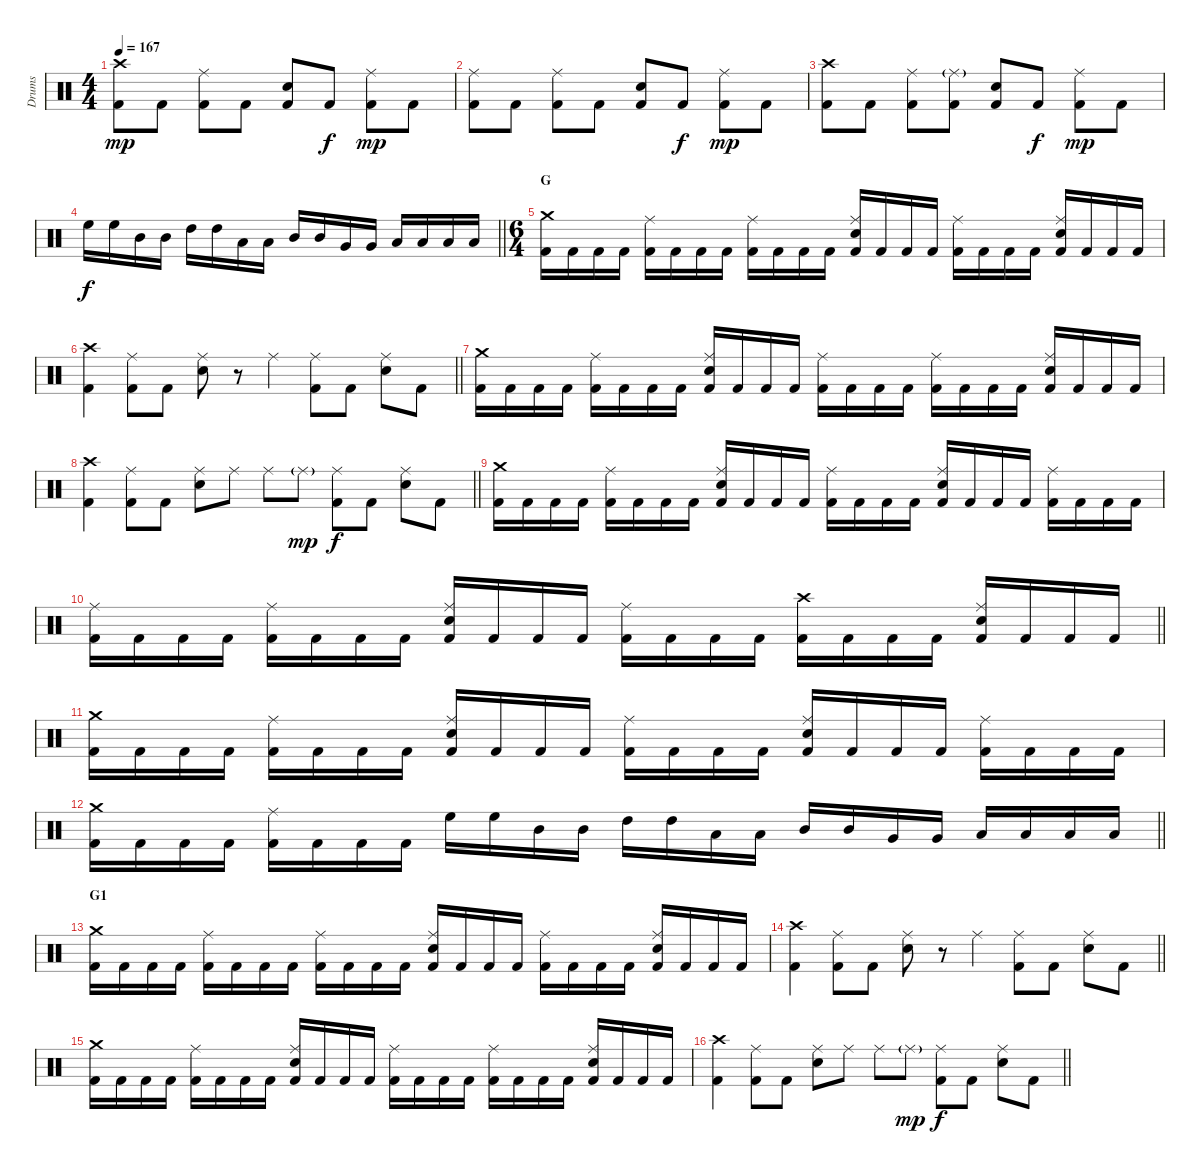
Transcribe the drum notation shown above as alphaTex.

\track ("Drums" "Drums") {instrument percussion}
\staff {score}
\articulation defaults
\ts (4 4)
\tempo 167
\clef neutral
\ks c
("Crash high (hit)" "Kick (hit) 2").8{dy mp} "Kick (hit) 2".8 ("Ride (middle)" "Kick (hit) 2").8 "Kick (hit) 2".8 ("Electric Snare (hit)" "Kick (hit) 2").8 "Kick (hit) 2".8{dy f} ("Ride (middle)" "Kick (hit) 2").8{dy mp} "Kick (hit) 2".8 |
("Ride (middle)" "Kick (hit) 2").8 "Kick (hit) 2".8 ("Ride (middle)" "Kick (hit) 2").8 "Kick (hit) 2".8 ("Electric Snare (hit)" "Kick (hit) 2").8 "Kick (hit) 2".8{dy f} ("Ride (middle)" "Kick (hit) 2").8{dy mp} "Kick (hit) 2".8 |
("Crash high (hit)" "Kick (hit) 2").8 "Kick (hit) 2".8 ("Ride (middle)" "Kick (hit) 2").8 ("Ride (middle)"{g} "Kick (hit) 2").8 ("Electric Snare (hit)" "Kick (hit) 2").8 "Kick (hit) 2".8{dy f} ("Ride (middle)" "Kick (hit) 2").8{dy mp} "Kick (hit) 2".8 |
\barLineRight lightlight "High Floor Tom (hit)".16{dy f} "High Floor Tom (hit)".16 "Mid Tom (hit)".16 "Mid Tom (hit)".16 "High Tom (hit)".16 "High Tom (hit)".16 "Low Tom (hit)".16 "Low Tom (hit)".16 "Mid Tom (hit)".16 "Mid Tom (hit)".16 "Very Low Tom (hit)".16 "Very Low Tom (hit)".16 "Low Tom (hit)".16 "Low Tom (hit)".16 "Low Floor Tom (hit)".16 "Low Floor Tom (hit)".16
|
\ts (6 4)
\section ("" "G")
("Crash medium (hit)" "Kick (hit) 2").16 "Kick (hit) 2".16 "Kick (hit) 2".16 "Kick (hit) 2".16 ("Ride (middle)" "Kick (hit) 2").16 "Kick (hit) 2".16 "Kick (hit) 2".16 "Kick (hit) 2".16 ("Ride (middle)" "Kick (hit) 2").16 "Kick (hit) 2".16 "Kick (hit) 2".16 "Kick (hit) 2".16 ("Ride (middle)" "Electric Snare (hit)" "Kick (hit) 2").16 "Kick (hit) 2".16 "Kick (hit) 2".16 "Kick (hit) 2".16 ("Ride (middle)" "Kick (hit) 2").16 "Kick (hit) 2".16 "Kick (hit) 2".16 "Kick (hit) 2".16 ("Ride (middle)" "Electric Snare (hit)" "Kick (hit) 2").16 "Kick (hit) 2".16 "Kick (hit) 2".16 "Kick (hit) 2".16 |
\barLineRight lightlight
("Crash high (hit)" "Kick (hit) 2").4 ("Ride (middle)" "Kick (hit) 2").8 "Kick (hit) 2".8 ("Ride (middle)" "Electric Snare (hit)").8 r.8 "Ride (middle)".4 ("Ride (middle)" "Kick (hit) 2").8 "Kick (hit) 2".8 ("Ride (middle)" "Electric Snare (hit)").8 "Kick (hit) 2".8 |
\section ("" "")
("Crash medium (hit)" "Kick (hit) 2").16 "Kick (hit) 2".16 "Kick (hit) 2".16 "Kick (hit) 2".16 ("Ride (middle)" "Kick (hit) 2").16 "Kick (hit) 2".16 "Kick (hit) 2".16 "Kick (hit) 2".16 ("Ride (middle)" "Electric Snare (hit)" "Kick (hit) 2").16 "Kick (hit) 2".16 "Kick (hit) 2".16 "Kick (hit) 2".16 ("Ride (middle)" "Kick (hit) 2").16 "Kick (hit) 2".16 "Kick (hit) 2".16 "Kick (hit) 2".16 ("Ride (middle)" "Kick (hit) 2").16 "Kick (hit) 2".16 "Kick (hit) 2".16 "Kick (hit) 2".16 ("Ride (middle)" "Electric Snare (hit)" "Kick (hit) 2").16 "Kick (hit) 2".16 "Kick (hit) 2".16 "Kick (hit) 2".16 |
\barLineRight lightlight
("Crash high (hit)" "Kick (hit) 2").4 ("Ride (middle)" "Kick (hit) 2").8 "Kick (hit) 2".8 ("Ride (middle)" "Electric Snare (hit)").8 "Ride (middle)".8 "Ride (middle)".8 "Ride (middle)"{g}.8{dy mp} ("Ride (middle)" "Kick (hit) 2").8{dy f} "Kick (hit) 2".8 ("Ride (middle)" "Electric Snare (hit)").8 "Kick (hit) 2".8 |
\section ("" "")
("Crash medium (hit)" "Kick (hit) 2").16 "Kick (hit) 2".16 "Kick (hit) 2".16 "Kick (hit) 2".16 ("Ride (middle)" "Kick (hit) 2").16 "Kick (hit) 2".16 "Kick (hit) 2".16 "Kick (hit) 2".16 ("Ride (middle)" "Electric Snare (hit)" "Kick (hit) 2").16 "Kick (hit) 2".16 "Kick (hit) 2".16 "Kick (hit) 2".16 ("Ride (middle)" "Kick (hit) 2").16 "Kick (hit) 2".16 "Kick (hit) 2".16 "Kick (hit) 2".16 ("Ride (middle)" "Electric Snare (hit)" "Kick (hit) 2").16 "Kick (hit) 2".16 "Kick (hit) 2".16 "Kick (hit) 2".16 ("Ride (middle)" "Kick (hit) 2").16 "Kick (hit) 2".16 "Kick (hit) 2".16 "Kick (hit) 2".16 |
\barLineRight lightlight
("Ride (middle)" "Kick (hit) 2").16 "Kick (hit) 2".16 "Kick (hit) 2".16 "Kick (hit) 2".16 ("Ride (middle)" "Kick (hit) 2").16 "Kick (hit) 2".16 "Kick (hit) 2".16 "Kick (hit) 2".16 ("Ride (middle)" "Electric Snare (hit)" "Kick (hit) 2").16 "Kick (hit) 2".16 "Kick (hit) 2".16 "Kick (hit) 2".16 ("Ride (middle)" "Kick (hit) 2").16 "Kick (hit) 2".16 "Kick (hit) 2".16 "Kick (hit) 2".16 ("Crash high (hit)" "Kick (hit) 2").16 "Kick (hit) 2".16 "Kick (hit) 2".16 "Kick (hit) 2".16 ("Ride (middle)" "Electric Snare (hit)" "Kick (hit) 2").16 "Kick (hit) 2".16 "Kick (hit) 2".16 "Kick (hit) 2".16 |
\section ("" "")
("Crash medium (hit)" "Kick (hit) 2").16 "Kick (hit) 2".16 "Kick (hit) 2".16 "Kick (hit) 2".16 ("Ride (middle)" "Kick (hit) 2").16 "Kick (hit) 2".16 "Kick (hit) 2".16 "Kick (hit) 2".16 ("Ride (middle)" "Electric Snare (hit)" "Kick (hit) 2").16 "Kick (hit) 2".16 "Kick (hit) 2".16 "Kick (hit) 2".16 ("Ride (middle)" "Kick (hit) 2").16 "Kick (hit) 2".16 "Kick (hit) 2".16 "Kick (hit) 2".16 ("Ride (middle)" "Electric Snare (hit)" "Kick (hit) 2").16 "Kick (hit) 2".16 "Kick (hit) 2".16 "Kick (hit) 2".16 ("Ride (middle)" "Kick (hit) 2").16 "Kick (hit) 2".16 "Kick (hit) 2".16 "Kick (hit) 2".16 |
\barLineRight lightlight
("Crash medium (hit)" "Kick (hit) 2").16 "Kick (hit) 2".16 "Kick (hit) 2".16 "Kick (hit) 2".16 ("Ride (middle)" "Kick (hit) 2").16 "Kick (hit) 2".16 "Kick (hit) 2".16 "Kick (hit) 2".16 "High Floor Tom (hit)".16 "High Floor Tom (hit)".16 "Mid Tom (hit)".16 "Mid Tom (hit)".16 "High Tom (hit)".16 "High Tom (hit)".16 "Low Tom (hit)".16 "Low Tom (hit)".16 "Mid Tom (hit)".16 "Mid Tom (hit)".16 "Very Low Tom (hit)".16 "Very Low Tom (hit)".16 "Low Tom (hit)".16 "Low Tom (hit)".16 "Low Floor Tom (hit)".16 "Low Floor Tom (hit)".16 |
\section ("" "G1")
("Crash medium (hit)" "Kick (hit) 2").16 "Kick (hit) 2".16 "Kick (hit) 2".16 "Kick (hit) 2".16 ("Ride (middle)" "Kick (hit) 2").16 "Kick (hit) 2".16 "Kick (hit) 2".16 "Kick (hit) 2".16 ("Ride (middle)" "Kick (hit) 2").16 "Kick (hit) 2".16 "Kick (hit) 2".16 "Kick (hit) 2".16 ("Ride (middle)" "Electric Snare (hit)" "Kick (hit) 2").16 "Kick (hit) 2".16 "Kick (hit) 2".16 "Kick (hit) 2".16 ("Ride (middle)" "Kick (hit) 2").16 "Kick (hit) 2".16 "Kick (hit) 2".16 "Kick (hit) 2".16 ("Ride (middle)" "Electric Snare (hit)" "Kick (hit) 2").16 "Kick (hit) 2".16 "Kick (hit) 2".16 "Kick (hit) 2".16 |
\barLineRight lightlight
("Crash high (hit)" "Kick (hit) 2").4 ("Ride (middle)" "Kick (hit) 2").8 "Kick (hit) 2".8 ("Ride (middle)" "Electric Snare (hit)").8 r.8 "Ride (middle)".4 ("Ride (middle)" "Kick (hit) 2").8 "Kick (hit) 2".8 ("Ride (middle)" "Electric Snare (hit)").8 "Kick (hit) 2".8 |
\section ("" "")
("Crash medium (hit)" "Kick (hit) 2").16 "Kick (hit) 2".16 "Kick (hit) 2".16 "Kick (hit) 2".16 ("Ride (middle)" "Kick (hit) 2").16 "Kick (hit) 2".16 "Kick (hit) 2".16 "Kick (hit) 2".16 ("Ride (middle)" "Electric Snare (hit)" "Kick (hit) 2").16 "Kick (hit) 2".16 "Kick (hit) 2".16 "Kick (hit) 2".16 ("Ride (middle)" "Kick (hit) 2").16 "Kick (hit) 2".16 "Kick (hit) 2".16 "Kick (hit) 2".16 ("Ride (middle)" "Kick (hit) 2").16 "Kick (hit) 2".16 "Kick (hit) 2".16 "Kick (hit) 2".16 ("Ride (middle)" "Electric Snare (hit)" "Kick (hit) 2").16 "Kick (hit) 2".16 "Kick (hit) 2".16 "Kick (hit) 2".16 |
\barLineRight lightlight
("Crash high (hit)" "Kick (hit) 2").4 ("Ride (middle)" "Kick (hit) 2").8 "Kick (hit) 2".8 ("Ride (middle)" "Electric Snare (hit)").8 "Ride (middle)".8 "Ride (middle)".8 "Ride (middle)"{g}.8{dy mp} ("Ride (middle)" "Kick (hit) 2").8{dy f} "Kick (hit) 2".8 ("Ride (middle)" "Electric Snare (hit)").8 "Kick (hit) 2".8
